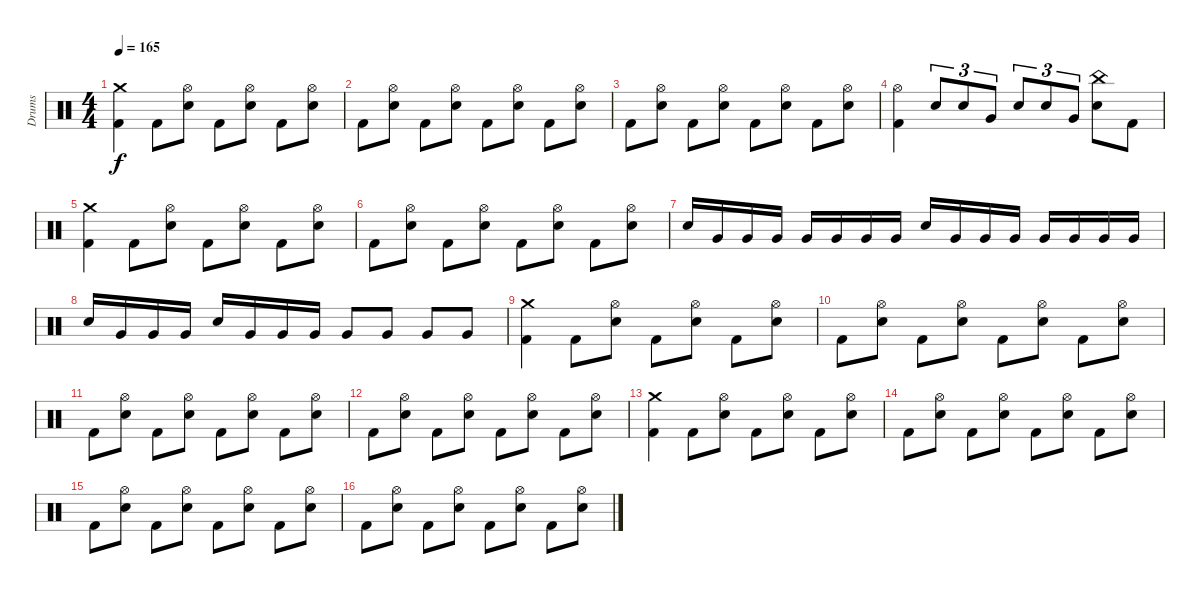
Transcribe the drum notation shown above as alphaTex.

\track ("Drums" "Drums") {instrument percussion}
\staff {score}
\articulation defaults
\ts (4 4)
\tempo 165
\clef neutral
\ks c
("Crash medium (hit)" "Kick (hit) 2").4{dy f} "Kick (hit) 2".8 ("Hi-Hat (open)" "Snare (hit) 2").8 "Kick (hit) 2".8 ("Hi-Hat (open)" "Snare (hit) 2").8 "Kick (hit) 2".8 ("Hi-Hat (open)" "Snare (hit) 2").8 |
"Kick (hit) 2".8 ("Hi-Hat (open)" "Snare (hit) 2").8 "Kick (hit) 2".8 ("Hi-Hat (open)" "Snare (hit) 2").8 "Kick (hit) 2".8 ("Hi-Hat (open)" "Snare (hit) 2").8 "Kick (hit) 2".8 ("Hi-Hat (open)" "Snare (hit) 2").8 |
"Kick (hit) 2".8 ("Hi-Hat (open)" "Snare (hit) 2").8 "Kick (hit) 2".8 ("Hi-Hat (open)" "Snare (hit) 2").8 "Kick (hit) 2".8 ("Hi-Hat (open)" "Snare (hit) 2").8 "Kick (hit) 2".8 ("Hi-Hat (open)" "Snare (hit) 2").8 |
("Hi-Hat (open)" "Kick (hit) 2").4 "Snare (hit) 2".8{tu (3 2)} "Snare (hit) 2".8{tu (3 2)} "Very Low Tom (hit)".8{tu (3 2)} "Snare (hit) 2".8{tu (3 2)} "Snare (hit) 2".8{tu (3 2)} "Very Low Tom (hit)".8{tu (3 2)} ("China (hit)" "Snare (hit) 2").8 "Kick (hit) 2".8 |
("Crash medium (hit)" "Kick (hit) 2").4 "Kick (hit) 2".8 ("Hi-Hat (open)" "Snare (hit) 2").8 "Kick (hit) 2".8 ("Hi-Hat (open)" "Snare (hit) 2").8 "Kick (hit) 2".8 ("Hi-Hat (open)" "Snare (hit) 2").8 |
"Kick (hit) 2".8 ("Hi-Hat (open)" "Snare (hit) 2").8 "Kick (hit) 2".8 ("Hi-Hat (open)" "Snare (hit) 2").8 "Kick (hit) 2".8 ("Hi-Hat (open)" "Snare (hit) 2").8 "Kick (hit) 2".8 ("Hi-Hat (open)" "Snare (hit) 2").8 |
"Snare (hit) 2".16 "Very Low Tom (hit)".16 "Very Low Tom (hit)".16 "Very Low Tom (hit)".16 "Very Low Tom (hit)".16 "Very Low Tom (hit)".16 "Very Low Tom (hit)".16 "Very Low Tom (hit)".16 "Snare (hit) 2".16 "Very Low Tom (hit)".16 "Very Low Tom (hit)".16 "Very Low Tom (hit)".16 "Very Low Tom (hit)".16 "Very Low Tom (hit)".16 "Very Low Tom (hit)".16 "Very Low Tom (hit)".16 |
"Snare (hit) 2".16 "Very Low Tom (hit)".16 "Very Low Tom (hit)".16 "Very Low Tom (hit)".16 "Snare (hit) 2".16 "Very Low Tom (hit)".16 "Very Low Tom (hit)".16 "Very Low Tom (hit)".16 "Very Low Tom (hit)".8 "Very Low Tom (hit)".8 "Very Low Tom (hit)".8 "Very Low Tom (hit)".8 |
("Crash medium (hit)" "Kick (hit) 2").4 "Kick (hit) 2".8 ("Hi-Hat (open)" "Snare (hit) 2").8 "Kick (hit) 2".8 ("Hi-Hat (open)" "Snare (hit) 2").8 "Kick (hit) 2".8 ("Hi-Hat (open)" "Snare (hit) 2").8 |
"Kick (hit) 2".8 ("Hi-Hat (open)" "Snare (hit) 2").8 "Kick (hit) 2".8 ("Hi-Hat (open)" "Snare (hit) 2").8 "Kick (hit) 2".8 ("Hi-Hat (open)" "Snare (hit) 2").8 "Kick (hit) 2".8 ("Hi-Hat (open)" "Snare (hit) 2").8 |
"Kick (hit) 2".8 ("Hi-Hat (open)" "Snare (hit) 2").8 "Kick (hit) 2".8 ("Hi-Hat (open)" "Snare (hit) 2").8 "Kick (hit) 2".8 ("Hi-Hat (open)" "Snare (hit) 2").8 "Kick (hit) 2".8 ("Hi-Hat (open)" "Snare (hit) 2").8 |
"Kick (hit) 2".8 ("Hi-Hat (open)" "Snare (hit) 2").8 "Kick (hit) 2".8 ("Hi-Hat (open)" "Snare (hit) 2").8 "Kick (hit) 2".8 ("Hi-Hat (open)" "Snare (hit) 2").8 "Kick (hit) 2".8 ("Hi-Hat (open)" "Snare (hit) 2").8 |
("Crash medium (hit)" "Kick (hit) 2").4 "Kick (hit) 2".8 ("Hi-Hat (open)" "Snare (hit) 2").8 "Kick (hit) 2".8 ("Hi-Hat (open)" "Snare (hit) 2").8 "Kick (hit) 2".8 ("Hi-Hat (open)" "Snare (hit) 2").8 |
"Kick (hit) 2".8 ("Hi-Hat (open)" "Snare (hit) 2").8 "Kick (hit) 2".8 ("Hi-Hat (open)" "Snare (hit) 2").8 "Kick (hit) 2".8 ("Hi-Hat (open)" "Snare (hit) 2").8 "Kick (hit) 2".8 ("Hi-Hat (open)" "Snare (hit) 2").8 |
"Kick (hit) 2".8 ("Hi-Hat (open)" "Snare (hit) 2").8 "Kick (hit) 2".8 ("Hi-Hat (open)" "Snare (hit) 2").8 "Kick (hit) 2".8 ("Hi-Hat (open)" "Snare (hit) 2").8 "Kick (hit) 2".8 ("Hi-Hat (open)" "Snare (hit) 2").8 |
"Kick (hit) 2".8 ("Hi-Hat (open)" "Snare (hit) 2").8 "Kick (hit) 2".8 ("Hi-Hat (open)" "Snare (hit) 2").8 "Kick (hit) 2".8 ("Hi-Hat (open)" "Snare (hit) 2").8 "Kick (hit) 2".8 ("Hi-Hat (open)" "Snare (hit) 2").8
